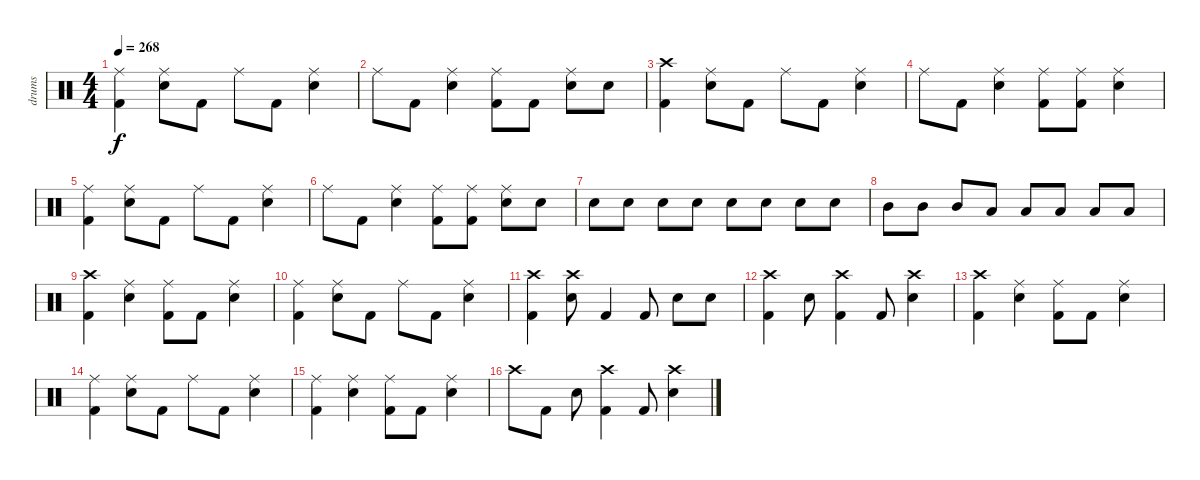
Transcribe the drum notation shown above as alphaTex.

\track ("drums" "drums") {instrument percussion}
\staff {score}
\articulation defaults
\ts (4 4)
\tempo 268
\clef neutral
\ks c
("Ride (middle)" "Kick (hit) 2").4{dy f} ("Ride (middle)" "Electric Snare (hit)").8 "Kick (hit) 2".8 "Ride (middle)".8 "Kick (hit) 2".8 ("Ride (middle)" "Electric Snare (hit)").4 |
"Ride (middle)".8 "Kick (hit) 2".8 ("Ride (middle)" "Electric Snare (hit)").4 ("Ride (middle)" "Kick (hit) 2").8 "Kick (hit) 2".8 ("Ride (middle)" "Electric Snare (hit)").8 "Electric Snare (hit)".8 |
("Crash high (hit)" "Kick (hit) 2").4 ("Ride (middle)" "Electric Snare (hit)").8 "Kick (hit) 2".8 "Ride (middle)".8 "Kick (hit) 2".8 ("Ride (middle)" "Electric Snare (hit)").4 |
"Ride (middle)".8 "Kick (hit) 2".8 ("Ride (middle)" "Electric Snare (hit)").4 ("Ride (middle)" "Kick (hit) 2").8 ("Ride (middle)" "Kick (hit) 2").8 ("Ride (middle)" "Electric Snare (hit)").4 |
("Ride (middle)" "Kick (hit) 2").4 ("Ride (middle)" "Electric Snare (hit)").8 "Kick (hit) 2".8 "Ride (middle)".8 "Kick (hit) 2".8 ("Ride (middle)" "Electric Snare (hit)").4 |
"Ride (middle)".8 "Kick (hit) 2".8 ("Ride (middle)" "Electric Snare (hit)").4 ("Ride (middle)" "Kick (hit) 2").8 ("Ride (middle)" "Kick (hit) 2").8 ("Ride (middle)" "Electric Snare (hit)").8 "Electric Snare (hit)".8 |
"Electric Snare (hit)".8 "Electric Snare (hit)".8 "Electric Snare (hit)".8 "Electric Snare (hit)".8 "Electric Snare (hit)".8 "Electric Snare (hit)".8 "Electric Snare (hit)".8 "Electric Snare (hit)".8 |
"Mid Tom (hit)".8 "Mid Tom (hit)".8 "Mid Tom (hit)".8 "Low Tom (hit)".8 "Low Tom (hit)".8 "Low Tom (hit)".8 "Low Floor Tom (hit)".8 "Low Floor Tom (hit)".8 |
("Crash high (hit)" "Kick (hit) 2").4 ("Ride (middle)" "Electric Snare (hit)").4 ("Ride (middle)" "Kick (hit) 2").8 "Kick (hit) 2".8 ("Ride (middle)" "Electric Snare (hit)").4 |
("Ride (middle)" "Kick (hit) 2").4 ("Ride (middle)" "Electric Snare (hit)").8 "Kick (hit) 2".8 "Ride (middle)".8 "Kick (hit) 2".8 ("Ride (middle)" "Electric Snare (hit)").4 |
("Crash high (hit)" "Kick (hit) 2").4 ("Crash high (hit)" "Electric Snare (hit)").8 "Kick (hit) 2".4 "Kick (hit) 2".8 "Electric Snare (hit)".8 "Electric Snare (hit)".8 |
("Crash high (hit)" "Kick (hit) 2").4 "Electric Snare (hit)".8 ("Crash high (hit)" "Kick (hit) 2").4 "Kick (hit) 2".8 ("Crash high (hit)" "Electric Snare (hit)").4 |
("Crash high (hit)" "Kick (hit) 2").4 ("Ride (middle)" "Electric Snare (hit)").4 ("Ride (middle)" "Kick (hit) 2").8 "Kick (hit) 2".8 ("Ride (middle)" "Electric Snare (hit)").4 |
("Ride (middle)" "Kick (hit) 2").4 ("Ride (middle)" "Electric Snare (hit)").8 "Kick (hit) 2".8 "Ride (middle)".8 "Kick (hit) 2".8 ("Ride (middle)" "Electric Snare (hit)").4 |
("Ride (middle)" "Kick (hit) 2").4 ("Ride (middle)" "Electric Snare (hit)").4 ("Ride (middle)" "Kick (hit) 2").8 "Kick (hit) 2".8 ("Ride (middle)" "Electric Snare (hit)").4 |
"Crash high (hit)".8 "Kick (hit) 2".8 "Electric Snare (hit)".8 ("Crash high (hit)" "Kick (hit) 2").4 "Kick (hit) 2".8 ("Crash high (hit)" "Electric Snare (hit)").4
